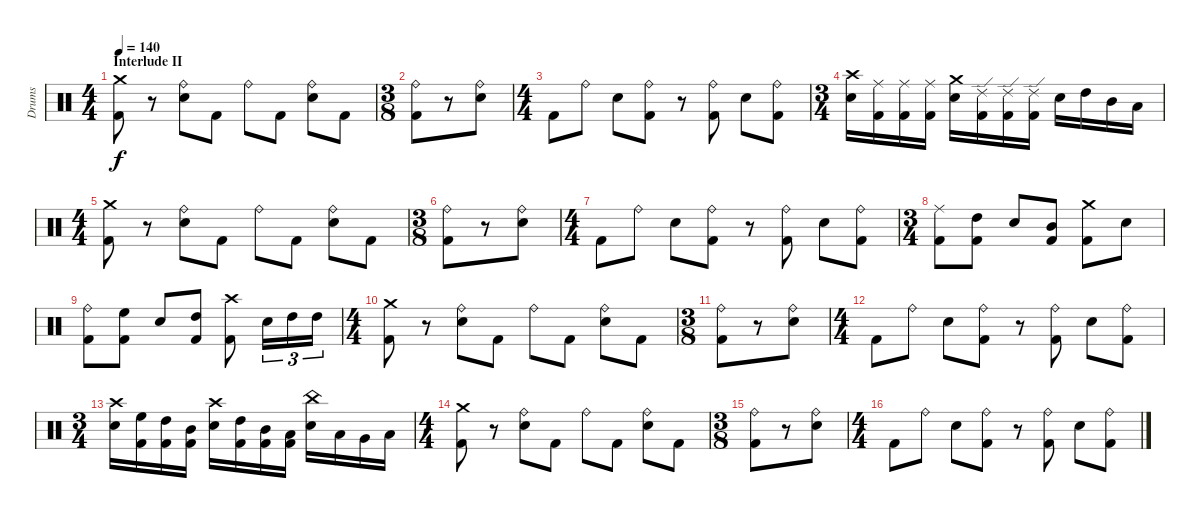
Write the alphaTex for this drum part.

\track ("Drums" "Drums") {instrument percussion}
\staff {score}
\articulation defaults
\ts (4 4)
\section ("" "Interlude II")
\tempo 140
\clef neutral
\ks c
("Crash medium (hit)" "Kick (hit) 2").8{dy f} r.8 ("Ride (bell)" "Electric Snare (hit)").8 "Kick (hit) 2".8 "Ride (bell)".8 "Kick (hit) 2".8 ("Ride (bell)" "Electric Snare (hit)").8 "Kick (hit) 2".8 |
\ts (3 8)
("Ride (bell)" "Kick (hit) 2").8 r.8 ("Ride (bell)" "Electric Snare (hit)").8 |
\ts (4 4)
"Kick (hit) 2".8 "Ride (bell)".8 "Electric Snare (hit)".8 ("Ride (bell)" "Kick (hit) 2").8 r.8 ("Ride (bell)" "Kick (hit) 2").8 "Electric Snare (hit)".8 ("Ride (bell)" "Kick (hit) 2").8 |
\ts (3 4)
("Crash high (hit)" "Electric Snare (hit)").16 ("Ride (middle)" "Kick (hit) 2").16 ("Ride (middle)" "Kick (hit) 2").16 ("Ride (middle)" "Kick (hit) 2").16 ("Crash medium (hit)" "Electric Snare (hit)").16 ("Ride (edge) 2" "Kick (hit) 2").16 ("Ride (edge) 2" "Kick (hit) 2").16 ("Ride (edge) 2" "Kick (hit) 2").16 "Electric Snare (hit)".16 "High Tom (hit)".16 "Mid Tom (hit)".16 "Low Tom (hit)".16 |
\ts (4 4)
("Crash medium (hit)" "Kick (hit) 2").8 r.8 ("Ride (bell)" "Electric Snare (hit)").8 "Kick (hit) 2".8 "Ride (bell)".8 "Kick (hit) 2".8 ("Ride (bell)" "Electric Snare (hit)").8 "Kick (hit) 2".8 |
\ts (3 8)
("Ride (bell)" "Kick (hit) 2").8 r.8 ("Ride (bell)" "Electric Snare (hit)").8 |
\ts (4 4)
"Kick (hit) 2".8 "Ride (bell)".8 "Electric Snare (hit)".8 ("Ride (bell)" "Kick (hit) 2").8 r.8 ("Ride (bell)" "Kick (hit) 2").8 "Electric Snare (hit)".8 ("Ride (bell)" "Kick (hit) 2").8 |
\ts (3 4)
("Ride (middle)" "Kick (hit) 2").8 ("High Tom (hit)" "Kick (hit) 2").8 "Electric Snare (hit)".8 ("Mid Tom (hit)" "Kick (hit) 2").8 ("Crash medium (hit)" "Kick (hit) 2").8 "Electric Snare (hit)".8 |
("Ride (bell)" "Kick (hit) 2").8 ("High Floor Tom (hit)" "Kick (hit) 2").8 "Electric Snare (hit)".8 ("High Tom (hit)" "Kick (hit) 2").8 ("Crash high (hit)" "Kick (hit) 2").8 "Electric Snare (hit)".16{tu (3 2)} "High Tom (hit)".16{tu (3 2)} "High Tom (hit)".16{tu (3 2)} |
\ts (4 4)
("Crash medium (hit)" "Kick (hit) 2").8 r.8 ("Ride (bell)" "Electric Snare (hit)").8 "Kick (hit) 2".8 "Ride (bell)".8 "Kick (hit) 2".8 ("Ride (bell)" "Electric Snare (hit)").8 "Kick (hit) 2".8 |
\ts (3 8)
("Ride (bell)" "Kick (hit) 2").8 r.8 ("Ride (bell)" "Electric Snare (hit)").8 |
\ts (4 4)
"Kick (hit) 2".8 "Ride (bell)".8 "Electric Snare (hit)".8 ("Ride (bell)" "Kick (hit) 2").8 r.8 ("Ride (bell)" "Kick (hit) 2").8 "Electric Snare (hit)".8 ("Ride (bell)" "Kick (hit) 2").8 |
\ts (3 4)
("Crash high (hit)" "Electric Snare (hit)").16 ("High Floor Tom (hit)" "Kick (hit) 2").16 ("High Tom (hit)" "Kick (hit) 2").16 ("Mid Tom (hit)" "Kick (hit) 2").16 ("Crash high (hit)" "Electric Snare (hit)").16 ("High Tom (hit)" "Kick (hit) 2").16 ("Mid Tom (hit)" "Kick (hit) 2").16 ("Low Tom (hit)" "Kick (hit) 2").16 ("China (hit)" "Electric Snare (hit)").16 "Low Tom (hit)".16 "Very Low Tom (hit)".16 "Low Floor Tom (hit)".16 |
\ts (4 4)
("Crash medium (hit)" "Kick (hit) 2").8 r.8 ("Ride (bell)" "Electric Snare (hit)").8 "Kick (hit) 2".8 "Ride (bell)".8 "Kick (hit) 2".8 ("Ride (bell)" "Electric Snare (hit)").8 "Kick (hit) 2".8 |
\ts (3 8)
("Ride (bell)" "Kick (hit) 2").8 r.8 ("Ride (bell)" "Electric Snare (hit)").8 |
\ts (4 4)
"Kick (hit) 2".8 "Ride (bell)".8 "Electric Snare (hit)".8 ("Ride (bell)" "Kick (hit) 2").8 r.8 ("Ride (bell)" "Kick (hit) 2").8 "Electric Snare (hit)".8 ("Ride (bell)" "Kick (hit) 2").8
